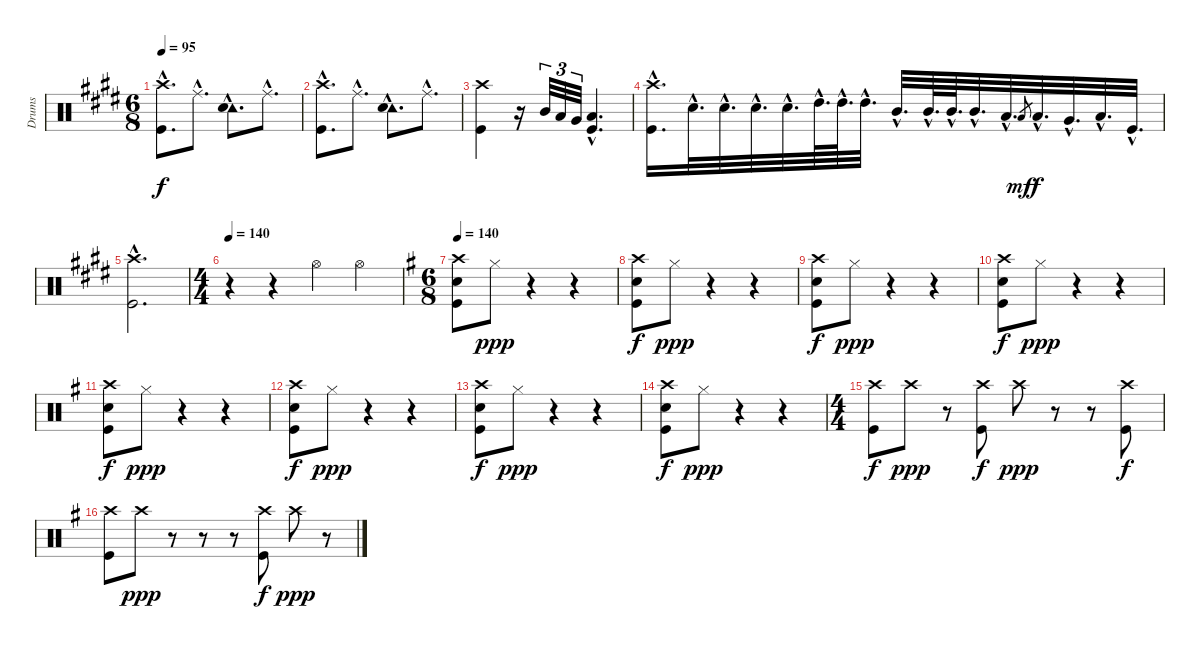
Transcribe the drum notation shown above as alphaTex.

\track ("Drums" "Drums") {instrument percussion}
\staff {score}
\articulation defaults
\ts (6 8)
\tempo 95
\clef neutral
\ks e
("Crash high (hit)"{hac} "Kick (hit)"{hac}).8{d dy f} "Ride (middle)"{hac}.8{d} ("Tambourine (hit)"{hac} "Electric Snare (hit)"{hac}).8{d} "Ride (middle)"{hac}.8{d} |
("Crash high (hit)"{hac} "Kick (hit)"{hac}).8{d} "Ride (middle)"{hac}.8{d} ("Tambourine (hit)"{hac} "Electric Snare (hit)"{hac}).8{d} "Ride (middle)"{hac}.8{d} |
("Crash high (hit)" "Kick (hit)").4 r.16 "Mid Tom (hit)".32{tu (3 2)} "Low Tom (hit)".32{tu (3 2)} "Very Low Tom (hit)".32{tu (3 2)} ("Low Floor Tom (hit)"{hac} "Kick (hit)"{hac}).4{d} |
("Crash high (hit)"{hac} "Kick (hit)"{hac}).16{d} "Electric Snare (hit)"{hac}.32{d} "Electric Snare (hit)"{hac}.32{d} "Electric Snare (hit)"{hac}.32{d} "Electric Snare (hit)"{hac}.32{d} "High Tom (hit)"{hac}.64{d} "High Tom (hit)"{hac}.64{d} "High Tom (hit)"{hac}.32{d} "Mid Tom (hit)"{hac}.32{d} "Mid Tom (hit)"{hac}.64{d} "Mid Tom (hit)"{hac}.64{d} "Mid Tom (hit)"{hac}.32{d} "Low Tom (hit)"{hac}.32{d} "Low Tom (hit)".8{gr dy mf} "Low Tom (hit)"{hac}.32{d dy f} "Very Low Tom (hit)"{hac}.32{d} "Low Floor Tom (hit)"{hac}.32{d} "Kick (hit)"{hac}.32{d} |
("Crash high (hit)"{hac} "Kick (hit)"{hac}).2{d} |
\ts (4 4)
\tempo 140
r.4 r.4 "Hi-Hat (open)".4 "Hi-Hat (open)".4 |
\ts (6 8)
\tempo 140
\ks g
("Crash high (hit)" "Snare (hit) 2" "Kick (hit)").8 "Hi-Hat (closed)".8{dy ppp} r.4 r.4 |
("Crash high (hit)" "Snare (hit) 2" "Kick (hit)").8{dy f} "Hi-Hat (closed)".8{dy ppp} r.4 r.4 |
("Crash high (hit)" "Snare (hit) 2" "Kick (hit)").8{dy f} "Hi-Hat (closed)".8{dy ppp} r.4 r.4 |
("Crash high (hit)" "Snare (hit) 2" "Kick (hit)").8{dy f} "Hi-Hat (closed)".8{dy ppp} r.4 r.4 |
("Crash high (hit)" "Snare (hit) 2" "Kick (hit)").8{dy f} "Hi-Hat (closed)".8{dy ppp} r.4 r.4 |
("Crash high (hit)" "Snare (hit) 2" "Kick (hit)").8{dy f} "Hi-Hat (closed)".8{dy ppp} r.4 r.4 |
("Crash high (hit)" "Snare (hit) 2" "Kick (hit)").8{dy f} "Hi-Hat (closed)".8{dy ppp} r.4 r.4 |
("Crash high (hit)" "Snare (hit) 2" "Kick (hit)").8{dy f} "Hi-Hat (closed)".8{dy ppp} r.4 r.4 |
\ts (4 4)
("Crash high (hit)" "Kick (hit)").8{dy f} "Crash high (hit)".8{dy ppp} r.8 ("Crash high (hit)" "Kick (hit)").8{dy f} "Crash high (hit)".8{dy ppp} r.8 r.8 ("Crash high (hit)" "Kick (hit)").8{dy f} |
("Crash high (hit)" "Kick (hit)").8 "Crash high (hit)".8{dy ppp} r.8 r.8 r.8 ("Crash high (hit)" "Kick (hit)").8{dy f} "Crash high (hit)".8{dy ppp} r.8
